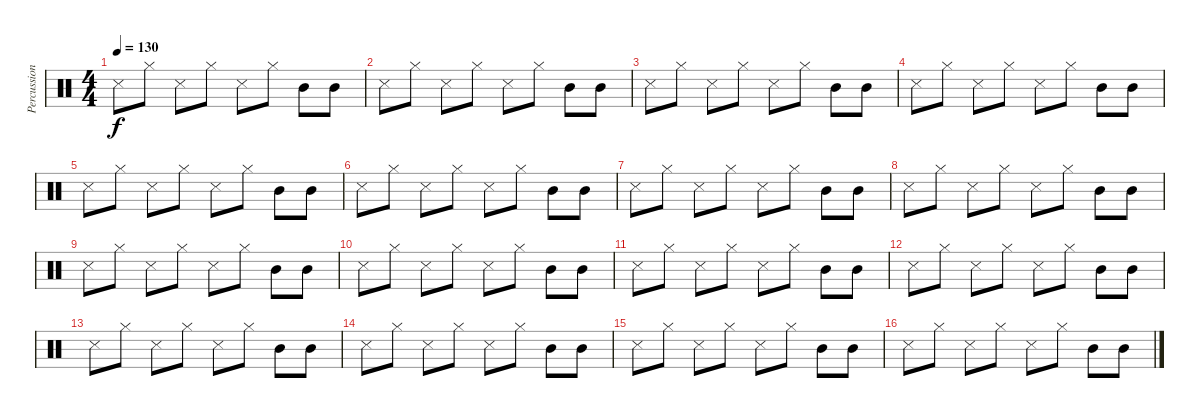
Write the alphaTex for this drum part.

\track ("Percussion" "Percussion") {instrument percussion}
\staff {score}
\articulation defaults
\ts (4 4)
\tempo 130
\clef neutral
\ks c "Snare (side stick) 3".8{dy f} "Hi-Hat (closed)".8 "Snare (side stick) 3".8 "Hi-Hat (closed)".8 "Snare (side stick) 3".8 "Hi-Hat (closed)".8 "Mid Tom (hit)".8 "Mid Tom (hit)".8
|
"Snare (side stick) 3".8 "Hi-Hat (closed)".8 "Snare (side stick) 3".8 "Hi-Hat (closed)".8 "Snare (side stick) 3".8 "Hi-Hat (closed)".8 "Mid Tom (hit)".8 "Mid Tom (hit)".8 |
"Snare (side stick) 3".8 "Hi-Hat (closed)".8 "Snare (side stick) 3".8 "Hi-Hat (closed)".8 "Snare (side stick) 3".8 "Hi-Hat (closed)".8 "Mid Tom (hit)".8 "Mid Tom (hit)".8 |
"Snare (side stick) 3".8 "Hi-Hat (closed)".8 "Snare (side stick) 3".8 "Hi-Hat (closed)".8 "Snare (side stick) 3".8 "Hi-Hat (closed)".8 "Mid Tom (hit)".8 "Mid Tom (hit)".8 |
"Snare (side stick) 3".8 "Hi-Hat (closed)".8 "Snare (side stick) 3".8 "Hi-Hat (closed)".8 "Snare (side stick) 3".8 "Hi-Hat (closed)".8 "Mid Tom (hit)".8 "Mid Tom (hit)".8 |
"Snare (side stick) 3".8 "Hi-Hat (closed)".8 "Snare (side stick) 3".8 "Hi-Hat (closed)".8 "Snare (side stick) 3".8 "Hi-Hat (closed)".8 "Mid Tom (hit)".8 "Mid Tom (hit)".8 |
"Snare (side stick) 3".8 "Hi-Hat (closed)".8 "Snare (side stick) 3".8 "Hi-Hat (closed)".8 "Snare (side stick) 3".8 "Hi-Hat (closed)".8 "Mid Tom (hit)".8 "Mid Tom (hit)".8 |
"Snare (side stick) 3".8 "Hi-Hat (closed)".8 "Snare (side stick) 3".8 "Hi-Hat (closed)".8 "Snare (side stick) 3".8 "Hi-Hat (closed)".8 "Mid Tom (hit)".8 "Mid Tom (hit)".8 |
"Snare (side stick) 3".8 "Hi-Hat (closed)".8 "Snare (side stick) 3".8 "Hi-Hat (closed)".8 "Snare (side stick) 3".8 "Hi-Hat (closed)".8 "Mid Tom (hit)".8 "Mid Tom (hit)".8 |
"Snare (side stick) 3".8 "Hi-Hat (closed)".8 "Snare (side stick) 3".8 "Hi-Hat (closed)".8 "Snare (side stick) 3".8 "Hi-Hat (closed)".8 "Mid Tom (hit)".8 "Mid Tom (hit)".8 |
"Snare (side stick) 3".8 "Hi-Hat (closed)".8 "Snare (side stick) 3".8 "Hi-Hat (closed)".8 "Snare (side stick) 3".8 "Hi-Hat (closed)".8 "Mid Tom (hit)".8 "Mid Tom (hit)".8 |
"Snare (side stick) 3".8 "Hi-Hat (closed)".8 "Snare (side stick) 3".8 "Hi-Hat (closed)".8 "Snare (side stick) 3".8 "Hi-Hat (closed)".8 "Mid Tom (hit)".8 "Mid Tom (hit)".8 |
"Snare (side stick) 3".8 "Hi-Hat (closed)".8 "Snare (side stick) 3".8 "Hi-Hat (closed)".8 "Snare (side stick) 3".8 "Hi-Hat (closed)".8 "Mid Tom (hit)".8 "Mid Tom (hit)".8 |
"Snare (side stick) 3".8 "Hi-Hat (closed)".8 "Snare (side stick) 3".8 "Hi-Hat (closed)".8 "Snare (side stick) 3".8 "Hi-Hat (closed)".8 "Mid Tom (hit)".8 "Mid Tom (hit)".8 |
"Snare (side stick) 3".8 "Hi-Hat (closed)".8 "Snare (side stick) 3".8 "Hi-Hat (closed)".8 "Snare (side stick) 3".8 "Hi-Hat (closed)".8 "Mid Tom (hit)".8 "Mid Tom (hit)".8 |
"Snare (side stick) 3".8 "Hi-Hat (closed)".8 "Snare (side stick) 3".8 "Hi-Hat (closed)".8 "Snare (side stick) 3".8 "Hi-Hat (closed)".8 "Mid Tom (hit)".8 "Mid Tom (hit)".8
